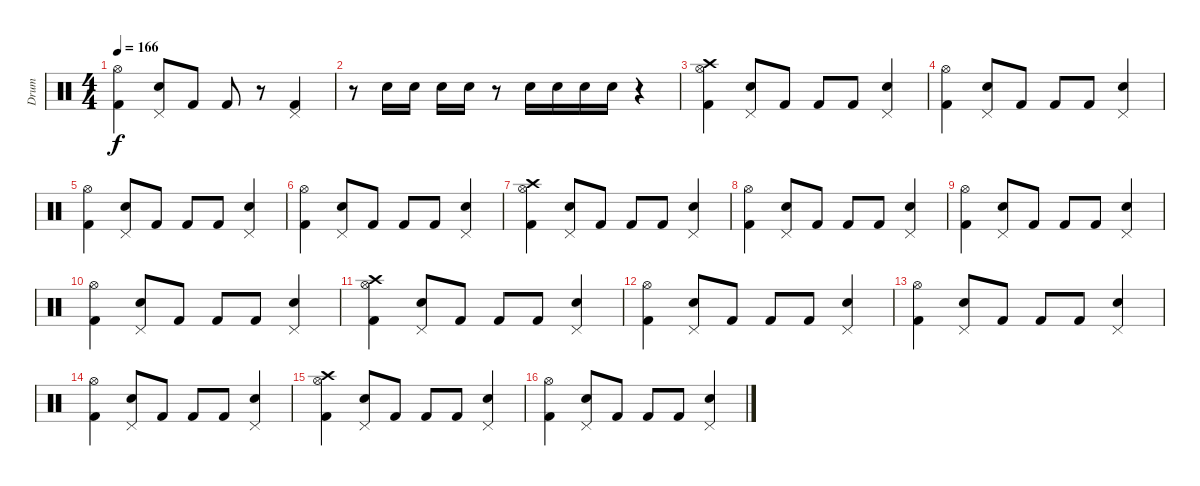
\track ("Drum" "Drum") {instrument percussion}
\staff {score}
\articulation defaults
\ts (4 4)
\tempo 166
\clef neutral
\ks c
("Kick (hit) 2" "Hi-Hat (open)").4{dy f} ("Electric Snare (hit)" "Pedal Hi-Hat (hit)").8 "Kick (hit) 2".8 "Kick (hit) 2".8 r.8 ("Kick (hit) 2" "Pedal Hi-Hat (hit)").4 |
r.8 "Electric Snare (hit)".16 "Electric Snare (hit)".16 "Electric Snare (hit)".16 "Electric Snare (hit)".16 r.8 "Electric Snare (hit)".16 "Electric Snare (hit)".16 "Electric Snare (hit)".16 "Electric Snare (hit)".16 r.4 |
("Kick (hit) 2" "Hi-Hat (open)" "Crash high (hit)").4 ("Electric Snare (hit)" "Pedal Hi-Hat (hit)").8 "Kick (hit) 2".8 "Kick (hit) 2".8 "Kick (hit) 2".8 ("Electric Snare (hit)" "Pedal Hi-Hat (hit)").4 |
("Kick (hit) 2" "Hi-Hat (open)").4 ("Electric Snare (hit)" "Pedal Hi-Hat (hit)").8 "Kick (hit) 2".8 "Kick (hit) 2".8 "Kick (hit) 2".8 ("Electric Snare (hit)" "Pedal Hi-Hat (hit)").4 |
("Kick (hit) 2" "Hi-Hat (open)").4 ("Electric Snare (hit)" "Pedal Hi-Hat (hit)").8 "Kick (hit) 2".8 "Kick (hit) 2".8 "Kick (hit) 2".8 ("Electric Snare (hit)" "Pedal Hi-Hat (hit)").4 |
("Kick (hit) 2" "Hi-Hat (open)").4 ("Electric Snare (hit)" "Pedal Hi-Hat (hit)").8 "Kick (hit) 2".8 "Kick (hit) 2".8 "Kick (hit) 2".8 ("Electric Snare (hit)" "Pedal Hi-Hat (hit)").4 |
("Kick (hit) 2" "Hi-Hat (open)" "Crash high (hit)").4 ("Electric Snare (hit)" "Pedal Hi-Hat (hit)").8 "Kick (hit) 2".8 "Kick (hit) 2".8 "Kick (hit) 2".8 ("Electric Snare (hit)" "Pedal Hi-Hat (hit)").4 |
("Kick (hit) 2" "Hi-Hat (open)").4 ("Electric Snare (hit)" "Pedal Hi-Hat (hit)").8 "Kick (hit) 2".8 "Kick (hit) 2".8 "Kick (hit) 2".8 ("Electric Snare (hit)" "Pedal Hi-Hat (hit)").4 |
("Kick (hit) 2" "Hi-Hat (open)").4 ("Electric Snare (hit)" "Pedal Hi-Hat (hit)").8 "Kick (hit) 2".8 "Kick (hit) 2".8 "Kick (hit) 2".8 ("Electric Snare (hit)" "Pedal Hi-Hat (hit)").4 |
("Kick (hit) 2" "Hi-Hat (open)").4 ("Electric Snare (hit)" "Pedal Hi-Hat (hit)").8 "Kick (hit) 2".8 "Kick (hit) 2".8 "Kick (hit) 2".8 ("Electric Snare (hit)" "Pedal Hi-Hat (hit)").4 |
("Kick (hit) 2" "Hi-Hat (open)" "Crash high (hit)").4 ("Electric Snare (hit)" "Pedal Hi-Hat (hit)").8 "Kick (hit) 2".8 "Kick (hit) 2".8 "Kick (hit) 2".8 ("Electric Snare (hit)" "Pedal Hi-Hat (hit)").4 |
("Kick (hit) 2" "Hi-Hat (open)").4 ("Electric Snare (hit)" "Pedal Hi-Hat (hit)").8 "Kick (hit) 2".8 "Kick (hit) 2".8 "Kick (hit) 2".8 ("Electric Snare (hit)" "Pedal Hi-Hat (hit)").4 |
("Kick (hit) 2" "Hi-Hat (open)").4 ("Electric Snare (hit)" "Pedal Hi-Hat (hit)").8 "Kick (hit) 2".8 "Kick (hit) 2".8 "Kick (hit) 2".8 ("Electric Snare (hit)" "Pedal Hi-Hat (hit)").4 |
("Kick (hit) 2" "Hi-Hat (open)").4 ("Electric Snare (hit)" "Pedal Hi-Hat (hit)").8 "Kick (hit) 2".8 "Kick (hit) 2".8 "Kick (hit) 2".8 ("Electric Snare (hit)" "Pedal Hi-Hat (hit)").4 |
("Kick (hit) 2" "Hi-Hat (open)" "Crash high (hit)").4 ("Electric Snare (hit)" "Pedal Hi-Hat (hit)").8 "Kick (hit) 2".8 "Kick (hit) 2".8 "Kick (hit) 2".8 ("Electric Snare (hit)" "Pedal Hi-Hat (hit)").4 |
("Kick (hit) 2" "Hi-Hat (open)").4 ("Electric Snare (hit)" "Pedal Hi-Hat (hit)").8 "Kick (hit) 2".8 "Kick (hit) 2".8 "Kick (hit) 2".8 ("Electric Snare (hit)" "Pedal Hi-Hat (hit)").4
